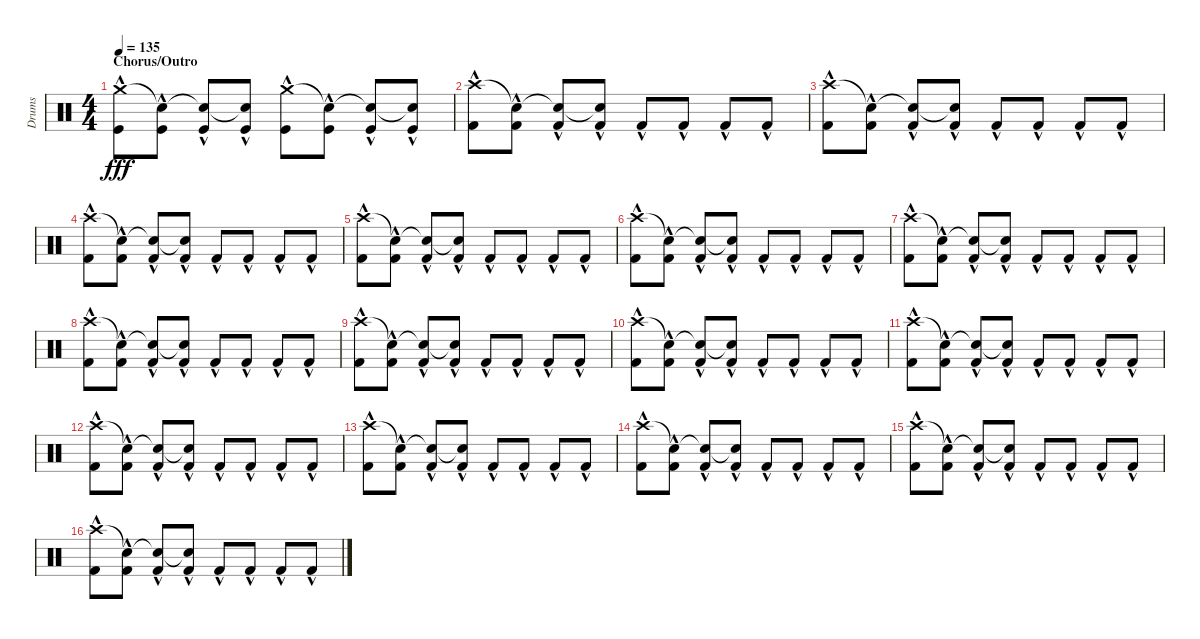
\track ("Drums" "Drums") {instrument percussion}
\staff {score}
\articulation defaults
\ts (4 4)
\section ("" "Chorus/Outro")
\tempo 135
\clef neutral
\ks c
("Crash medium (hit)"{hac} "Kick (hit)"{hac}).8{dy fff volume 16} ("Snare (hit)"{t} "Kick (hit)"{hac}).8 ("Snare (hit)"{t} "Kick (hit)"{hac}).8 ("Snare (hit)"{t} "Kick (hit)"{hac}).8 ("Crash medium (hit)"{hac} "Kick (hit)"{hac}).8 ("Snare (hit)"{t} "Kick (hit)"{hac}).8 ("Snare (hit)"{t} "Kick (hit)"{hac}).8 ("Snare (hit)"{t} "Kick (hit)"{hac}).8 |
("Crash high (hit)"{hac} "Kick (hit) 2"{hac}).8 ("Snare (hit)"{t} "Kick (hit) 2"{hac}).8 ("Snare (hit)"{t} "Kick (hit) 2"{hac}).8 ("Snare (hit)"{t} "Kick (hit) 2"{hac}).8 "Kick (hit) 2"{hac}.8 "Kick (hit) 2"{hac}.8 "Kick (hit) 2"{hac}.8 "Kick (hit) 2"{hac}.8 |
("Crash high (hit)"{hac} "Kick (hit) 2"{hac}).8 ("Snare (hit)"{t} "Kick (hit) 2"{hac}).8 ("Snare (hit)"{t} "Kick (hit) 2"{hac}).8 ("Snare (hit)"{t} "Kick (hit) 2"{hac}).8 "Kick (hit) 2"{hac}.8 "Kick (hit) 2"{hac}.8 "Kick (hit) 2"{hac}.8 "Kick (hit) 2"{hac}.8 |
("Crash high (hit)"{hac} "Kick (hit) 2"{hac}).8 ("Snare (hit)"{t} "Kick (hit) 2"{hac}).8 ("Snare (hit)"{t} "Kick (hit) 2"{hac}).8 ("Snare (hit)"{t} "Kick (hit) 2"{hac}).8 "Kick (hit) 2"{hac}.8 "Kick (hit) 2"{hac}.8 "Kick (hit) 2"{hac}.8 "Kick (hit) 2"{hac}.8 |
("Crash high (hit)"{hac} "Kick (hit) 2"{hac}).8 ("Snare (hit)"{t} "Kick (hit) 2"{hac}).8 ("Snare (hit)"{t} "Kick (hit) 2"{hac}).8 ("Snare (hit)"{t} "Kick (hit) 2"{hac}).8 "Kick (hit) 2"{hac}.8 "Kick (hit) 2"{hac}.8 "Kick (hit) 2"{hac}.8 "Kick (hit) 2"{hac}.8 |
("Crash high (hit)"{hac} "Kick (hit) 2"{hac}).8 ("Snare (hit)"{t} "Kick (hit) 2"{hac}).8 ("Snare (hit)"{t} "Kick (hit) 2"{hac}).8 ("Snare (hit)"{t} "Kick (hit) 2"{hac}).8 "Kick (hit) 2"{hac}.8 "Kick (hit) 2"{hac}.8 "Kick (hit) 2"{hac}.8 "Kick (hit) 2"{hac}.8 |
("Crash high (hit)"{hac} "Kick (hit) 2"{hac}).8 ("Snare (hit)"{t} "Kick (hit) 2"{hac}).8 ("Snare (hit)"{t} "Kick (hit) 2"{hac}).8 ("Snare (hit)"{t} "Kick (hit) 2"{hac}).8 "Kick (hit) 2"{hac}.8 "Kick (hit) 2"{hac}.8 "Kick (hit) 2"{hac}.8 "Kick (hit) 2"{hac}.8 |
("Crash high (hit)"{hac} "Kick (hit) 2"{hac}).8 ("Snare (hit)"{t} "Kick (hit) 2"{hac}).8 ("Snare (hit)"{t} "Kick (hit) 2"{hac}).8 ("Snare (hit)"{t} "Kick (hit) 2"{hac}).8 "Kick (hit) 2"{hac}.8 "Kick (hit) 2"{hac}.8 "Kick (hit) 2"{hac}.8 "Kick (hit) 2"{hac}.8 |
("Crash high (hit)"{hac} "Kick (hit) 2"{hac}).8 ("Snare (hit)"{t} "Kick (hit) 2"{hac}).8 ("Snare (hit)"{t} "Kick (hit) 2"{hac}).8 ("Snare (hit)"{t} "Kick (hit) 2"{hac}).8 "Kick (hit) 2"{hac}.8 "Kick (hit) 2"{hac}.8 "Kick (hit) 2"{hac}.8 "Kick (hit) 2"{hac}.8 |
("Crash high (hit)"{hac} "Kick (hit) 2"{hac}).8 ("Snare (hit)"{t} "Kick (hit) 2"{hac}).8 ("Snare (hit)"{t} "Kick (hit) 2"{hac}).8 ("Snare (hit)"{t} "Kick (hit) 2"{hac}).8 "Kick (hit) 2"{hac}.8 "Kick (hit) 2"{hac}.8 "Kick (hit) 2"{hac}.8 "Kick (hit) 2"{hac}.8 |
("Crash high (hit)"{hac} "Kick (hit) 2"{hac}).8 ("Snare (hit)"{t} "Kick (hit) 2"{hac}).8 ("Snare (hit)"{t} "Kick (hit) 2"{hac}).8 ("Snare (hit)"{t} "Kick (hit) 2"{hac}).8 "Kick (hit) 2"{hac}.8 "Kick (hit) 2"{hac}.8 "Kick (hit) 2"{hac}.8 "Kick (hit) 2"{hac}.8 |
("Crash high (hit)"{hac} "Kick (hit) 2"{hac}).8 ("Snare (hit)"{t} "Kick (hit) 2"{hac}).8 ("Snare (hit)"{t} "Kick (hit) 2"{hac}).8 ("Snare (hit)"{t} "Kick (hit) 2"{hac}).8 "Kick (hit) 2"{hac}.8 "Kick (hit) 2"{hac}.8 "Kick (hit) 2"{hac}.8 "Kick (hit) 2"{hac}.8 |
("Crash high (hit)"{hac} "Kick (hit) 2"{hac}).8 ("Snare (hit)"{t} "Kick (hit) 2"{hac}).8 ("Snare (hit)"{t} "Kick (hit) 2"{hac}).8 ("Snare (hit)"{t} "Kick (hit) 2"{hac}).8 "Kick (hit) 2"{hac}.8 "Kick (hit) 2"{hac}.8 "Kick (hit) 2"{hac}.8 "Kick (hit) 2"{hac}.8 |
("Crash high (hit)"{hac} "Kick (hit) 2"{hac}).8 ("Snare (hit)"{t} "Kick (hit) 2"{hac}).8 ("Snare (hit)"{t} "Kick (hit) 2"{hac}).8 ("Snare (hit)"{t} "Kick (hit) 2"{hac}).8 "Kick (hit) 2"{hac}.8 "Kick (hit) 2"{hac}.8 "Kick (hit) 2"{hac}.8 "Kick (hit) 2"{hac}.8 |
("Crash high (hit)"{hac} "Kick (hit) 2"{hac}).8 ("Snare (hit)"{t} "Kick (hit) 2"{hac}).8 ("Snare (hit)"{t} "Kick (hit) 2"{hac}).8 ("Snare (hit)"{t} "Kick (hit) 2"{hac}).8 "Kick (hit) 2"{hac}.8 "Kick (hit) 2"{hac}.8 "Kick (hit) 2"{hac}.8 "Kick (hit) 2"{hac}.8 |
("Crash high (hit)"{hac} "Kick (hit) 2"{hac}).8 ("Snare (hit)"{t} "Kick (hit) 2"{hac}).8 ("Snare (hit)"{t} "Kick (hit) 2"{hac}).8 ("Snare (hit)"{t} "Kick (hit) 2"{hac}).8 "Kick (hit) 2"{hac}.8 "Kick (hit) 2"{hac}.8 "Kick (hit) 2"{hac}.8 "Kick (hit) 2"{hac}.8
